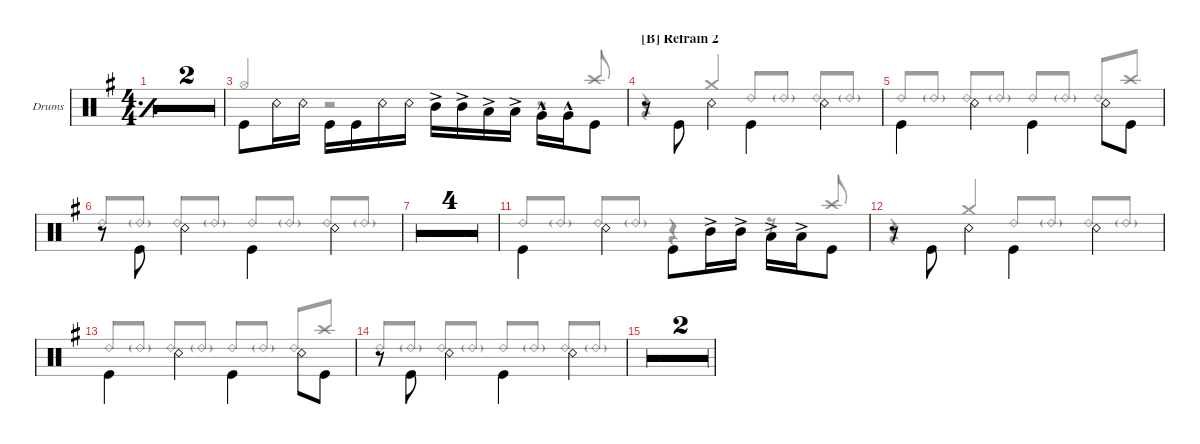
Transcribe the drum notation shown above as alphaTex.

\defaultSystemsLayout 4
\hideDynamics
\bracketExtendMode groupsimilarinstruments
\firstSystemTrackNameOrientation horizontal
\otherSystemsTrackNameOrientation horizontal
\track ("Drumkit" "Drums") {multiBarRest instrument percussion}
\staff {score}
\articulation defaults
\voice
\ts (4 4)
\tempo 164
\clef neutral
\simile simple
\ks eminor
|
|
\simile none "Kick (hit)".8{beam invert} "Snare (rim shot)".16 "Snare (rim shot)".16 "Kick (hit)".16{beam invert} "Kick (hit)".16 "Snare (rim shot)".16 "Snare (rim shot)".16 "Mid Tom (hit)"{ac}.16{beam invert} "Mid Tom (hit)"{ac}.16 "Low Tom (hit)"{ac}.16 "Low Tom (hit)"{ac}.16 "Very Low Tom (hit)"{hac}.16{beam invert} "Very Low Tom (hit)"{hac}.16 "Kick (hit)".8
|
\section ("B" "Refrain 2")
r.8 "Kick (hit)".8{beam invert} "Snare (rim shot)".4{beam invert} "Kick (hit)".4{beam invert} "Snare (rim shot)".4{beam invert} |
"Kick (hit)".4{beam invert} "Snare (rim shot)".4{beam invert} "Kick (hit)".4{beam invert} "Snare (rim shot)".8{beam invert} "Kick (hit)".8 |
r.8 "Kick (hit)".8{beam invert} "Snare (rim shot)".4{beam invert} "Kick (hit)".4{beam invert} "Snare (rim shot)".4{beam invert} |
\simile firstofdouble
|
\simile secondofdouble
|
\simile firstofdouble
|
\simile secondofdouble
|
\simile none "Kick (hit)".4{beam invert} "Snare (rim shot)".4{beam invert} "Kick (hit)".8{beam invert} "Mid Tom (hit)"{ac}.16 "Mid Tom (hit)"{ac}.16 "Low Tom (hit)"{ac}.16{beam invert} "Low Tom (hit)"{ac}.16 "Kick (hit)".8
|
r.8 "Kick (hit)".8{beam invert} "Snare (rim shot)".4{beam invert} "Kick (hit)".4{beam invert} "Snare (rim shot)".4{beam invert} |
"Kick (hit)".4{beam invert} "Snare (rim shot)".4{beam invert} "Kick (hit)".4{beam invert} "Snare (rim shot)".8{beam invert} "Kick (hit)".8 |
r.8 "Kick (hit)".8{beam invert} "Snare (rim shot)".4{beam invert} "Kick (hit)".4{beam invert} "Snare (rim shot)".4{beam invert} |
\simile firstofdouble
|
\simile secondofdouble
\voice
\clef neutral
\ottava regular
\simile simple
\ks eminor
|
|
\simile none "Hi-Hat (open)".4{beam invert}
r.2 r.8 "Crash high (hit)".8{beam invert} |
r.4 "Crash medium (hit)".4{beam invert} "Ride (bell) 2".8{dy mf beam invert} "Ride (bell) 2"{g}.8 "Ride (bell) 2".8{beam invert} "Ride (bell) 2"{g}.8 |
"Ride (bell) 2".8{beam invert} "Ride (bell) 2"{g}.8 "Ride (bell) 2".8{beam invert} "Ride (bell) 2"{g}.8 "Ride (bell) 2".8{beam invert} "Ride (bell) 2"{g}.8 "Ride (bell) 2".8{beam invert} "Crash high (hit)".8{dy f} |
"Ride (bell) 2".8{dy mf beam invert} "Ride (bell) 2"{g}.8 "Ride (bell) 2".8{beam invert} "Ride (bell) 2"{g}.8 "Ride (bell) 2".8{beam invert} "Ride (bell) 2"{g}.8 "Ride (bell) 2".8{beam invert} "Ride (bell) 2"{g}.8 |
\simile firstofdouble
|
\simile secondofdouble
|
\simile firstofdouble
|
\simile secondofdouble
|
\simile none "Ride (bell) 2".8{beam invert} "Ride (bell) 2"{g}.8 "Ride (bell) 2".8{beam invert} "Ride (bell) 2"{g}.8
r.4{beam invert} r.8 "Crash high (hit)".8{dy f beam invert} |
r.4 "Crash medium (hit)".4{beam invert} "Ride (bell) 2".8{dy mf beam invert} "Ride (bell) 2"{g}.8 "Ride (bell) 2".8{beam invert} "Ride (bell) 2"{g}.8 |
"Ride (bell) 2".8{beam invert} "Ride (bell) 2"{g}.8 "Ride (bell) 2".8{beam invert} "Ride (bell) 2"{g}.8 "Ride (bell) 2".8{beam invert} "Ride (bell) 2"{g}.8 "Ride (bell) 2".8{beam invert} "Crash high (hit)".8{dy f} |
"Ride (bell) 2".8{dy mf beam invert} "Ride (bell) 2"{g}.8 "Ride (bell) 2".8{beam invert} "Ride (bell) 2"{g}.8 "Ride (bell) 2".8{beam invert} "Ride (bell) 2"{g}.8 "Ride (bell) 2".8{beam invert} "Ride (bell) 2"{g}.8 |
\simile firstofdouble
|
\simile secondofdouble
